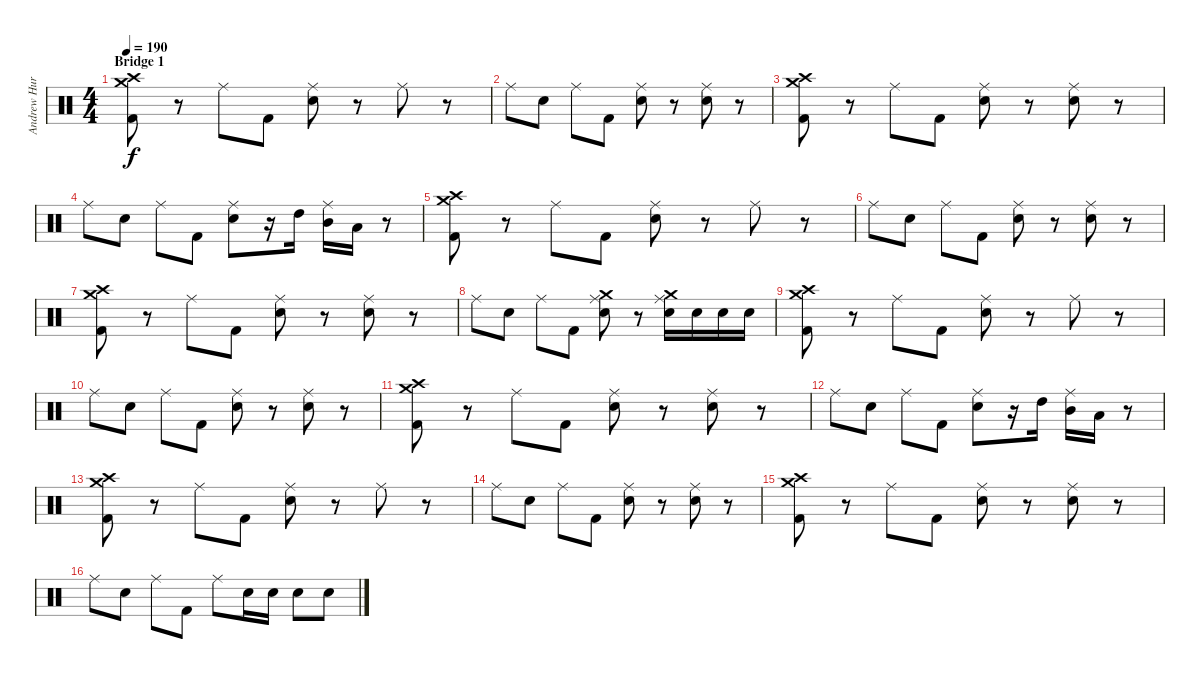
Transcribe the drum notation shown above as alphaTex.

\track ("Andrew Hurley (Drums)" "Andrew Hur") {instrument percussion}
\staff {score}
\articulation defaults
\ts (4 4)
\section ("" "Bridge 1")
\tempo 190
\clef neutral
\ks c
("Crash high (hit)" "Crash medium (hit)" "Kick (hit) 2").8{dy f} r.8 "Ride (middle)".8 "Kick (hit) 2".8 ("Ride (middle)" "Electric Snare (hit)").8 r.8 "Ride (middle)".8 r.8 |
"Ride (middle)".8 "Electric Snare (hit)".8 "Ride (middle)".8 "Kick (hit) 2".8 ("Ride (middle)" "Electric Snare (hit)").8 r.8 ("Ride (middle)" "Electric Snare (hit)").8 r.8 |
("Crash high (hit)" "Crash medium (hit)" "Kick (hit) 2").8 r.8 "Ride (middle)".8 "Kick (hit) 2".8 ("Ride (middle)" "Electric Snare (hit)").8 r.8 ("Ride (middle)" "Electric Snare (hit)").8 r.8 |
"Ride (middle)".8 "Electric Snare (hit)".8 "Ride (middle)".8 "Kick (hit) 2".8 ("Ride (middle)" "Electric Snare (hit)").8 r.16 "High Tom (hit)".16 ("Ride (middle)" "Mid Tom (hit)").16 "Low Tom (hit)".16 r.8 |
("Crash high (hit)" "Crash medium (hit)" "Kick (hit) 2").8 r.8 "Ride (middle)".8 "Kick (hit) 2".8 ("Ride (middle)" "Electric Snare (hit)").8 r.8 "Ride (middle)".8 r.8 |
"Ride (middle)".8 "Electric Snare (hit)".8 "Ride (middle)".8 "Kick (hit) 2".8 ("Ride (middle)" "Electric Snare (hit)").8 r.8 ("Ride (middle)" "Electric Snare (hit)").8 r.8 |
("Crash medium (hit)" "Crash high (hit)" "Kick (hit) 2").8 r.8 "Ride (middle)".8 "Kick (hit) 2".8 ("Ride (middle)" "Electric Snare (hit)").8 r.8 ("Ride (middle)" "Electric Snare (hit)").8 r.8 |
"Ride (middle)".8 "Electric Snare (hit)".8 "Ride (middle)".8 "Kick (hit) 2".8 ("Crash medium (hit)" "Ride (middle)" "Electric Snare (hit)").8 r.8 ("Crash medium (hit)" "Ride (middle)" "Electric Snare (hit)").16 "Electric Snare (hit)".16 "Electric Snare (hit)".16 "Electric Snare (hit)".16 |
("Crash high (hit)" "Crash medium (hit)" "Kick (hit) 2").8 r.8 "Ride (middle)".8 "Kick (hit) 2".8 ("Ride (middle)" "Electric Snare (hit)").8 r.8 "Ride (middle)".8 r.8 |
"Ride (middle)".8 "Electric Snare (hit)".8 "Ride (middle)".8 "Kick (hit) 2".8 ("Ride (middle)" "Electric Snare (hit)").8 r.8 ("Ride (middle)" "Electric Snare (hit)").8 r.8 |
("Crash high (hit)" "Crash medium (hit)" "Kick (hit) 2").8 r.8 "Ride (middle)".8 "Kick (hit) 2".8 ("Ride (middle)" "Electric Snare (hit)").8 r.8 ("Ride (middle)" "Electric Snare (hit)").8 r.8 |
"Ride (middle)".8 "Electric Snare (hit)".8 "Ride (middle)".8 "Kick (hit) 2".8 ("Ride (middle)" "Electric Snare (hit)").8 r.16 "High Tom (hit)".16 ("Ride (middle)" "Mid Tom (hit)").16 "Low Tom (hit)".16 r.8 |
("Crash high (hit)" "Crash medium (hit)" "Kick (hit) 2").8 r.8 "Ride (middle)".8 "Kick (hit) 2".8 ("Ride (middle)" "Electric Snare (hit)").8 r.8 "Ride (middle)".8 r.8 |
"Ride (middle)".8 "Electric Snare (hit)".8 "Ride (middle)".8 "Kick (hit) 2".8 ("Ride (middle)" "Electric Snare (hit)").8 r.8 ("Ride (middle)" "Electric Snare (hit)").8 r.8 |
("Crash medium (hit)" "Crash high (hit)" "Kick (hit) 2").8 r.8 "Ride (middle)".8 "Kick (hit) 2".8 ("Ride (middle)" "Electric Snare (hit)").8 r.8 ("Ride (middle)" "Electric Snare (hit)").8 r.8 |
"Ride (middle)".8 "Electric Snare (hit)".8 "Ride (middle)".8 "Kick (hit) 2".8 "Ride (middle)".8 "Electric Snare (hit)".16 "Electric Snare (hit)".16 "Electric Snare (hit)".8 "Electric Snare (hit)".8
